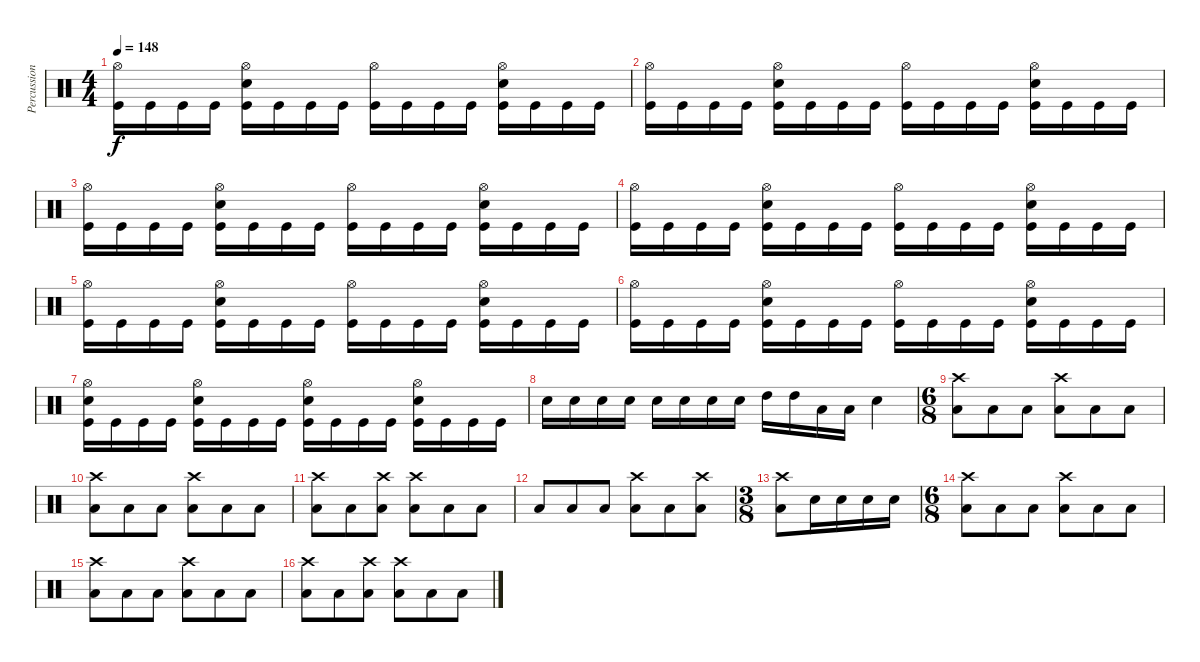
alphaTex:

\track ("Percussion" "Percussion") {instrument percussion}
\staff {score}
\articulation defaults
\ts (4 4)
\tempo 148
\clef neutral
\ks c
("Hi-Hat (open)" "Kick (hit)").16{dy f} "Kick (hit)".16 "Kick (hit)".16 "Kick (hit)".16 ("Hi-Hat (open)" "Electric Snare (hit)" "Kick (hit)").16 "Kick (hit)".16 "Kick (hit)".16 "Kick (hit)".16 ("Hi-Hat (open)" "Kick (hit)").16 "Kick (hit)".16 "Kick (hit)".16 "Kick (hit)".16 ("Hi-Hat (open)" "Electric Snare (hit)" "Kick (hit)").16 "Kick (hit)".16 "Kick (hit)".16 "Kick (hit)".16 |
("Hi-Hat (open)" "Kick (hit)").16 "Kick (hit)".16 "Kick (hit)".16 "Kick (hit)".16 ("Hi-Hat (open)" "Electric Snare (hit)" "Kick (hit)").16 "Kick (hit)".16 "Kick (hit)".16 "Kick (hit)".16 ("Hi-Hat (open)" "Kick (hit)").16 "Kick (hit)".16 "Kick (hit)".16 "Kick (hit)".16 ("Hi-Hat (open)" "Electric Snare (hit)" "Kick (hit)").16 "Kick (hit)".16 "Kick (hit)".16 "Kick (hit)".16 |
("Hi-Hat (open)" "Kick (hit)").16 "Kick (hit)".16 "Kick (hit)".16 "Kick (hit)".16 ("Hi-Hat (open)" "Electric Snare (hit)" "Kick (hit)").16 "Kick (hit)".16 "Kick (hit)".16 "Kick (hit)".16 ("Hi-Hat (open)" "Kick (hit)").16 "Kick (hit)".16 "Kick (hit)".16 "Kick (hit)".16 ("Hi-Hat (open)" "Electric Snare (hit)" "Kick (hit)").16 "Kick (hit)".16 "Kick (hit)".16 "Kick (hit)".16 |
("Hi-Hat (open)" "Kick (hit)").16 "Kick (hit)".16 "Kick (hit)".16 "Kick (hit)".16 ("Hi-Hat (open)" "Electric Snare (hit)" "Kick (hit)").16 "Kick (hit)".16 "Kick (hit)".16 "Kick (hit)".16 ("Hi-Hat (open)" "Kick (hit)").16 "Kick (hit)".16 "Kick (hit)".16 "Kick (hit)".16 ("Hi-Hat (open)" "Electric Snare (hit)" "Kick (hit)").16 "Kick (hit)".16 "Kick (hit)".16 "Kick (hit)".16 |
("Hi-Hat (open)" "Kick (hit)").16 "Kick (hit)".16 "Kick (hit)".16 "Kick (hit)".16 ("Hi-Hat (open)" "Electric Snare (hit)" "Kick (hit)").16 "Kick (hit)".16 "Kick (hit)".16 "Kick (hit)".16 ("Hi-Hat (open)" "Kick (hit)").16 "Kick (hit)".16 "Kick (hit)".16 "Kick (hit)".16 ("Hi-Hat (open)" "Electric Snare (hit)" "Kick (hit)").16 "Kick (hit)".16 "Kick (hit)".16 "Kick (hit)".16 |
("Hi-Hat (open)" "Kick (hit)").16 "Kick (hit)".16 "Kick (hit)".16 "Kick (hit)".16 ("Hi-Hat (open)" "Electric Snare (hit)" "Kick (hit)").16 "Kick (hit)".16 "Kick (hit)".16 "Kick (hit)".16 ("Hi-Hat (open)" "Kick (hit)").16 "Kick (hit)".16 "Kick (hit)".16 "Kick (hit)".16 ("Hi-Hat (open)" "Electric Snare (hit)" "Kick (hit)").16 "Kick (hit)".16 "Kick (hit)".16 "Kick (hit)".16 |
("Hi-Hat (open)" "Electric Snare (hit)" "Kick (hit)").16 "Kick (hit)".16 "Kick (hit)".16 "Kick (hit)".16 ("Hi-Hat (open)" "Electric Snare (hit)" "Kick (hit)").16 "Kick (hit)".16 "Kick (hit)".16 "Kick (hit)".16 ("Hi-Hat (open)" "Electric Snare (hit)" "Kick (hit)").16 "Kick (hit)".16 "Kick (hit)".16 "Kick (hit)".16 ("Hi-Hat (open)" "Electric Snare (hit)" "Kick (hit)").16 "Kick (hit)".16 "Kick (hit)".16 "Kick (hit)".16 |
"Electric Snare (hit)".16 "Electric Snare (hit)".16 "Electric Snare (hit)".16 "Electric Snare (hit)".16 "Electric Snare (hit)".16 "Electric Snare (hit)".16 "Electric Snare (hit)".16 "Electric Snare (hit)".16 "High Tom (hit)".16 "High Tom (hit)".16 "Low Floor Tom (hit)".16 "Low Floor Tom (hit)".16 "Electric Snare (hit)".4 |
\ts (6 8)
("Crash high (hit)" "Low Floor Tom (hit)").8 "Low Floor Tom (hit)".8 "Low Floor Tom (hit)".8 ("Crash high (hit)" "Low Floor Tom (hit)").8 "Low Floor Tom (hit)".8 "Low Floor Tom (hit)".8 |
("Crash high (hit)" "Low Floor Tom (hit)").8 "Low Floor Tom (hit)".8 "Low Floor Tom (hit)".8 ("Crash high (hit)" "Low Floor Tom (hit)").8 "Low Floor Tom (hit)".8 "Low Floor Tom (hit)".8 |
("Crash high (hit)" "Low Floor Tom (hit)").8 "Low Floor Tom (hit)".8 ("Crash high (hit)" "Low Floor Tom (hit)").8 ("Crash high (hit)" "Low Floor Tom (hit)").8 "Low Floor Tom (hit)".8 "Low Floor Tom (hit)".8 |
"Low Floor Tom (hit)".8 "Low Floor Tom (hit)".8 "Low Floor Tom (hit)".8 ("Crash high (hit)" "Low Floor Tom (hit)").8 "Low Floor Tom (hit)".8 ("Crash high (hit)" "Low Floor Tom (hit)").8 |
\ts (3 8)
("Crash high (hit)" "Low Floor Tom (hit)").8 "Electric Snare (hit)".16 "Electric Snare (hit)".16 "Electric Snare (hit)".16 "Electric Snare (hit)".16 |
\ts (6 8)
("Crash high (hit)" "Low Floor Tom (hit)").8 "Low Floor Tom (hit)".8 "Low Floor Tom (hit)".8 ("Crash high (hit)" "Low Floor Tom (hit)").8 "Low Floor Tom (hit)".8 "Low Floor Tom (hit)".8 |
("Crash high (hit)" "Low Floor Tom (hit)").8 "Low Floor Tom (hit)".8 "Low Floor Tom (hit)".8 ("Crash high (hit)" "Low Floor Tom (hit)").8 "Low Floor Tom (hit)".8 "Low Floor Tom (hit)".8 |
("Crash high (hit)" "Low Floor Tom (hit)").8 "Low Floor Tom (hit)".8 ("Crash high (hit)" "Low Floor Tom (hit)").8 ("Crash high (hit)" "Low Floor Tom (hit)").8 "Low Floor Tom (hit)".8 "Low Floor Tom (hit)".8
